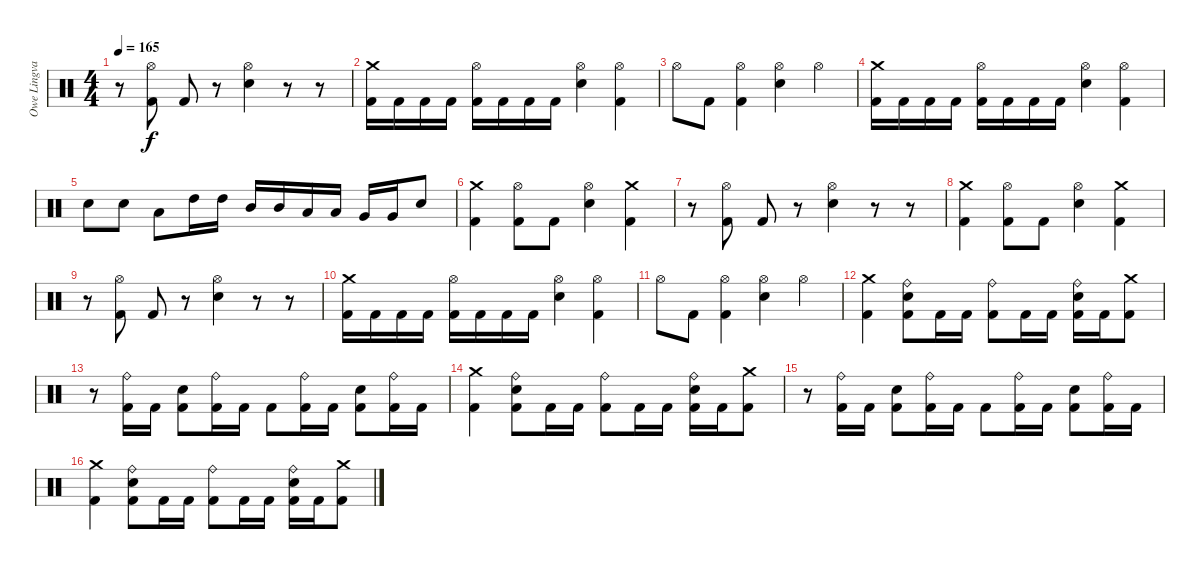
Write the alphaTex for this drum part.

\track ("Owe Lingvall" "Owe Lingva") {instrument percussion}
\staff {score}
\articulation defaults
\ts (4 4)
\tempo 165
\clef neutral
\ks c
r.8{dy f} ("Hi-Hat (open)" "Kick (hit) 2").8 "Kick (hit) 2".8 r.8 ("Hi-Hat (open)" "Snare (hit) 2").4 r.8 r.8 |
("Crash medium (hit)" "Kick (hit) 2").16 "Kick (hit) 2".16 "Kick (hit) 2".16 "Kick (hit) 2".16 ("Hi-Hat (open)" "Kick (hit) 2").16 "Kick (hit) 2".16 "Kick (hit) 2".16 "Kick (hit) 2".16 ("Hi-Hat (open)" "Snare (hit) 2").4 ("Hi-Hat (open)" "Kick (hit) 2").4 |
"Hi-Hat (open)".8 "Kick (hit) 2".8 ("Hi-Hat (open)" "Kick (hit) 2").4 ("Hi-Hat (open)" "Snare (hit) 2").4 "Hi-Hat (open)".4 |
("Crash medium (hit)" "Kick (hit) 2").16 "Kick (hit) 2".16 "Kick (hit) 2".16 "Kick (hit) 2".16 ("Hi-Hat (open)" "Kick (hit) 2").16 "Kick (hit) 2".16 "Kick (hit) 2".16 "Kick (hit) 2".16 ("Hi-Hat (open)" "Snare (hit) 2").4 ("Hi-Hat (open)" "Kick (hit) 2").4 |
"Snare (hit) 2".8 "Snare (hit) 2".8 "Low Tom (hit)".8 "High Tom (hit)".16 "High Tom (hit)".16 "Mid Tom (hit)".16 "Mid Tom (hit)".16 "Low Tom (hit)".16 "Low Tom (hit)".16 "Very Low Tom (hit)".16 "Very Low Tom (hit)".16 "Snare (hit) 2".8 |
("Crash medium (hit)" "Kick (hit) 2").4 ("Hi-Hat (open)" "Kick (hit) 2").8 "Kick (hit) 2".8 ("Hi-Hat (open)" "Snare (hit) 2").4 ("Crash medium (hit)" "Kick (hit) 2").4 |
r.8 ("Hi-Hat (open)" "Kick (hit) 2").8 "Kick (hit) 2".8 r.8 ("Hi-Hat (open)" "Snare (hit) 2").4 r.8 r.8 |
("Crash medium (hit)" "Kick (hit) 2").4 ("Hi-Hat (open)" "Kick (hit) 2").8 "Kick (hit) 2".8 ("Hi-Hat (open)" "Snare (hit) 2").4 ("Crash medium (hit)" "Kick (hit) 2").4 |
r.8 ("Hi-Hat (open)" "Kick (hit) 2").8 "Kick (hit) 2".8 r.8 ("Hi-Hat (open)" "Snare (hit) 2").4 r.8 r.8 |
("Crash medium (hit)" "Kick (hit) 2").16 "Kick (hit) 2".16 "Kick (hit) 2".16 "Kick (hit) 2".16 ("Hi-Hat (open)" "Kick (hit) 2").16 "Kick (hit) 2".16 "Kick (hit) 2".16 "Kick (hit) 2".16 ("Hi-Hat (open)" "Snare (hit) 2").4 ("Hi-Hat (open)" "Kick (hit) 2").4 |
"Hi-Hat (open)".8 "Kick (hit) 2".8 ("Hi-Hat (open)" "Kick (hit) 2").4 ("Hi-Hat (open)" "Snare (hit) 2").4 "Hi-Hat (open)".4 |
("Crash medium (hit)" "Kick (hit) 2").4 ("Ride (bell)" "Snare (hit) 2" "Kick (hit) 2").8 "Kick (hit) 2".16 "Kick (hit) 2".16 ("Ride (bell)" "Kick (hit) 2").8 "Kick (hit) 2".16 "Kick (hit) 2".16 ("Ride (bell)" "Snare (hit) 2" "Kick (hit) 2").16 "Kick (hit) 2".16 ("Crash medium (hit)" "Kick (hit) 2").8 |
r.8 ("Ride (bell)" "Kick (hit) 2").16 "Kick (hit) 2".16 ("Snare (hit) 2" "Kick (hit) 2").8 ("Ride (bell)" "Kick (hit) 2").16 "Kick (hit) 2".16 "Kick (hit) 2".8 ("Ride (bell)" "Kick (hit) 2").16 "Kick (hit) 2".16 ("Snare (hit) 2" "Kick (hit) 2").8 ("Ride (bell)" "Kick (hit) 2").16 "Kick (hit) 2".16 |
("Crash medium (hit)" "Kick (hit) 2").4 ("Ride (bell)" "Snare (hit) 2" "Kick (hit) 2").8 "Kick (hit) 2".16 "Kick (hit) 2".16 ("Ride (bell)" "Kick (hit) 2").8 "Kick (hit) 2".16 "Kick (hit) 2".16 ("Ride (bell)" "Snare (hit) 2" "Kick (hit) 2").16 "Kick (hit) 2".16 ("Crash medium (hit)" "Kick (hit) 2").8 |
r.8 ("Ride (bell)" "Kick (hit) 2").16 "Kick (hit) 2".16 ("Snare (hit) 2" "Kick (hit) 2").8 ("Ride (bell)" "Kick (hit) 2").16 "Kick (hit) 2".16 "Kick (hit) 2".8 ("Ride (bell)" "Kick (hit) 2").16 "Kick (hit) 2".16 ("Snare (hit) 2" "Kick (hit) 2").8 ("Ride (bell)" "Kick (hit) 2").16 "Kick (hit) 2".16 |
("Crash medium (hit)" "Kick (hit) 2").4 ("Ride (bell)" "Snare (hit) 2" "Kick (hit) 2").8 "Kick (hit) 2".16 "Kick (hit) 2".16 ("Ride (bell)" "Kick (hit) 2").8 "Kick (hit) 2".16 "Kick (hit) 2".16 ("Ride (bell)" "Snare (hit) 2" "Kick (hit) 2").16 "Kick (hit) 2".16 ("Crash medium (hit)" "Kick (hit) 2").8
